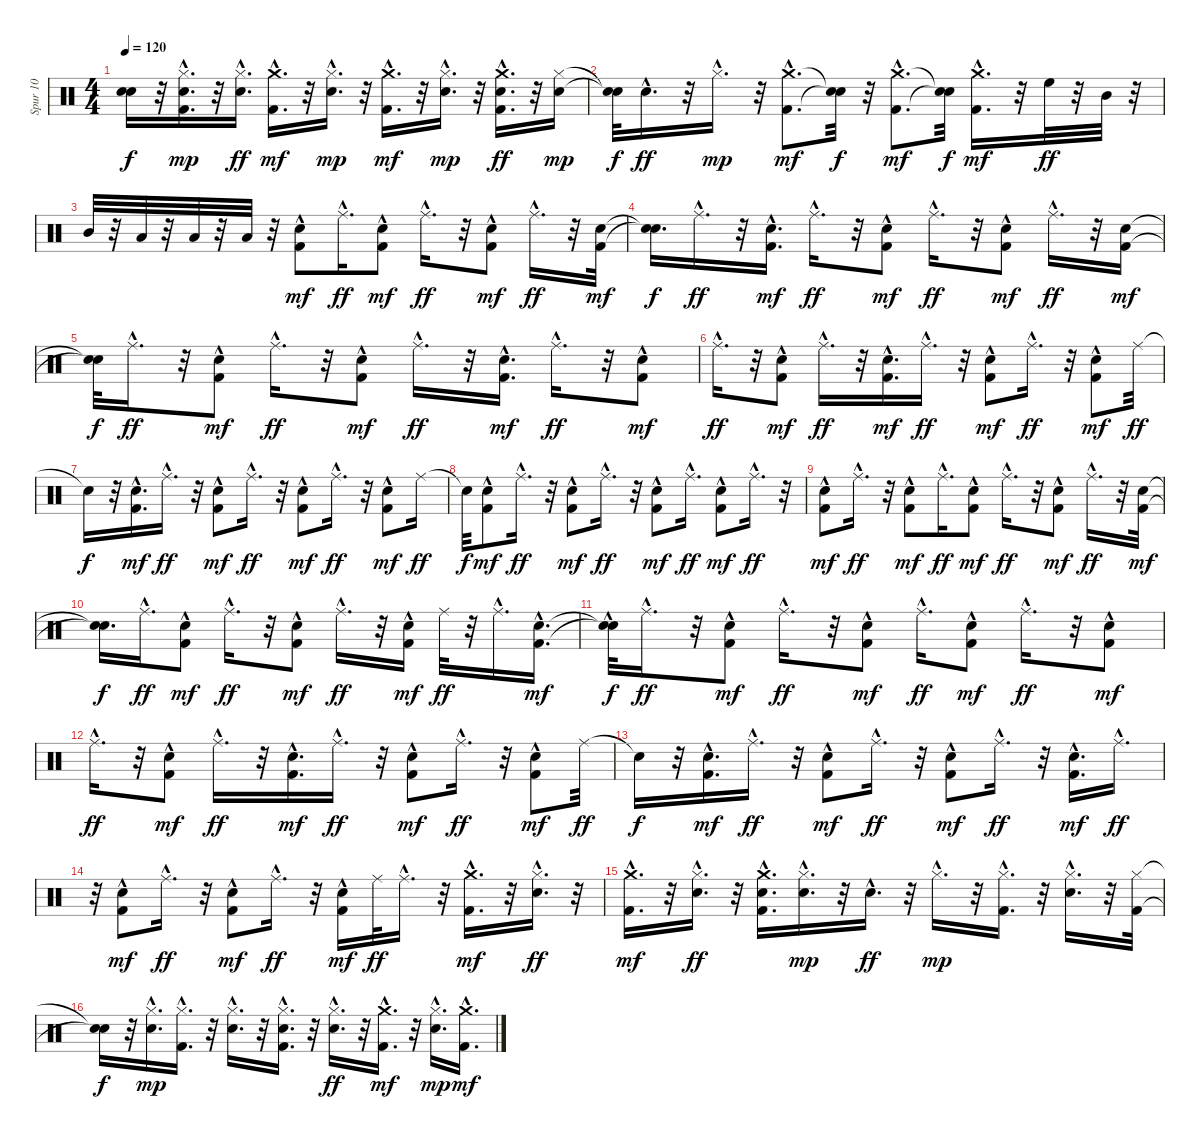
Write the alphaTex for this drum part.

\track ("Spur 10" "Spur 10") {instrument percussion}
\staff {score}
\articulation defaults
\ts (4 4)
\tempo 120
\clef neutral
\ks c
("Snare (hit)"{t} "Snare (hit)"{t}).16{dy f} r.32 ("Kick (hit) 2"{hac} "Snare (hit) 2"{hac} "Hi-Hat (closed)"{hac}).16{d dy mp} r.32 ("Hi-Hat (closed)"{hac} "Snare (hit) 2"{hac}).16{d dy ff} ("Kick (hit) 2"{hac} "Crash medium (hit)"{hac}).16{d dy mf} r.32 ("Snare (hit) 2"{hac} "Hi-Hat (closed)"{hac}).16{d dy mp} r.32 ("Crash medium (hit)"{hac} "Kick (hit) 2"{hac}).16{d dy mf} r.32 ("Snare (hit) 2"{hac} "Hi-Hat (closed)"{hac}).16{d dy mp} r.32 ("Crash medium (hit)"{hac} "Snare (hit) 2"{hac} "Kick (hit) 2"{hac}).16{d dy ff} r.32 ("Snare (hit) 2" "Hi-Hat (closed)").16{dy mp} |
("Snare (hit)"{t} "Snare (hit)"{t}).32{dy f} "Snare (hit) 2"{hac}.16{d dy ff} r.32 "Hi-Hat (closed)"{hac}.16{d dy mp} r.32 ("Crash medium (hit)"{hac} "Kick (hit) 2"{hac}).8{d dy mf} ("Snare (hit)"{t} "Snare (hit)"{t}).32{dy f} r.32 ("Crash medium (hit)"{hac} "Kick (hit) 2"{hac}).8{d dy mf} ("Snare (hit)"{t} "Snare (hit)"{t}).32{dy f} ("Crash medium (hit)"{hac} "Kick (hit) 2"{hac}).16{d dy mf} r.32 "High Floor Tom (hit)".32{dy ff} r.32 "Mid Tom (hit)".32 r.32 |
"Mid Tom (hit)".32 r.32 "Low Tom (hit)".32 r.32 "Low Tom (hit)".32 r.32 "Low Floor Tom (hit)".32 r.32 ("Kick (hit) 2"{hac} "Hand Clap (hit)"{hac}).8{dy mf} "Ride (middle)"{hac}.16{d dy ff} ("Hand Clap (hit)"{hac} "Kick (hit) 2"{hac}).8{dy mf} "Ride (middle)"{hac}.16{d dy ff} r.32 ("Hand Clap (hit)"{hac} "Kick (hit) 2"{hac}).8{dy mf} "Ride (middle)"{hac}.16{d dy ff} r.32 ("Hand Clap (hit)" "Kick (hit) 2").32{dy mf} |
("Snare (hit)"{t} "Snare (hit)"{t}).16{d dy f} "Ride (middle)"{hac}.16{d dy ff} r.32 ("Kick (hit) 2"{hac} "Hand Clap (hit)"{hac}).16{d dy mf} "Ride (middle)"{hac}.16{d dy ff} r.32 ("Hand Clap (hit)"{hac} "Kick (hit) 2"{hac}).8{dy mf} "Ride (middle)"{hac}.16{d dy ff} r.32 ("Hand Clap (hit)"{hac} "Kick (hit) 2"{hac}).8{dy mf} "Ride (middle)"{hac}.16{d dy ff} r.32 ("Hand Clap (hit)" "Kick (hit) 2").16{dy mf} |
("Snare (hit)"{t} "Snare (hit)"{t}).32{dy f} "Ride (middle)"{hac}.16{d dy ff} r.32 ("Kick (hit) 2"{hac} "Hand Clap (hit)"{hac}).8{dy mf} "Ride (middle)"{hac}.16{d dy ff} r.32 ("Hand Clap (hit)"{hac} "Kick (hit) 2"{hac}).8{dy mf} "Ride (middle)"{hac}.16{d dy ff} r.32 ("Hand Clap (hit)"{hac} "Kick (hit) 2"{hac}).16{d dy mf} "Ride (middle)"{hac}.16{d dy ff} r.32 ("Hand Clap (hit)"{hac} "Kick (hit) 2"{hac}).8{dy mf} |
"Ride (middle)"{hac}.16{d dy ff} r.32 ("Kick (hit) 2"{hac} "Hand Clap (hit)"{hac}).8{dy mf} "Ride (middle)"{hac}.16{d dy ff} r.32 ("Hand Clap (hit)"{hac} "Kick (hit) 2"{hac}).16{d dy mf} "Ride (middle)"{hac}.16{d dy ff} r.32 ("Hand Clap (hit)"{hac} "Kick (hit) 2"{hac}).8{dy mf} "Ride (middle)"{hac}.16{d dy ff} r.32 ("Hand Clap (hit)"{hac} "Kick (hit) 2"{hac}).8{dy mf} "Ride (middle)".32{dy ff} |
"Snare (hit)"{t}.16{dy f} r.32 ("Kick (hit) 2"{hac} "Hand Clap (hit)"{hac}).16{d dy mf} "Ride (middle)"{hac}.16{d dy ff} r.32 ("Hand Clap (hit)"{hac} "Kick (hit) 2"{hac}).8{dy mf} "Ride (middle)"{hac}.16{d dy ff} r.32 ("Hand Clap (hit)"{hac} "Kick (hit) 2"{hac}).8{dy mf} "Ride (middle)"{hac}.16{d dy ff} r.32 ("Hand Clap (hit)"{hac} "Kick (hit) 2"{hac}).8{dy mf} "Ride (middle)".16{dy ff} |
"Snare (hit)"{t}.32{dy f} ("Kick (hit) 2"{hac} "Hand Clap (hit)"{hac}).8{dy mf} "Ride (middle)"{hac}.16{d dy ff} r.32 ("Hand Clap (hit)"{hac} "Kick (hit) 2"{hac}).8{dy mf} "Ride (middle)"{hac}.16{d dy ff} r.32 ("Hand Clap (hit)"{hac} "Kick (hit) 2"{hac}).8{dy mf} "Ride (middle)"{hac}.16{d dy ff} ("Hand Clap (hit)"{hac} "Kick (hit) 2"{hac}).8{dy mf} "Ride (middle)"{hac}.16{d dy ff} r.32 |
("Kick (hit) 2"{hac} "Hand Clap (hit)"{hac}).8{dy mf} "Ride (middle)"{hac}.16{d dy ff} r.32 ("Hand Clap (hit)"{hac} "Kick (hit) 2"{hac}).8{dy mf} "Ride (middle)"{hac}.16{d dy ff} ("Hand Clap (hit)"{hac} "Kick (hit) 2"{hac}).8{dy mf} "Ride (middle)"{hac}.16{d dy ff} r.32 ("Hand Clap (hit)"{hac} "Kick (hit) 2"{hac}).8{dy mf} "Ride (middle)"{hac}.16{d dy ff} r.32 ("Kick (hit) 2" "Hand Clap (hit)").32{dy mf} |
("Snare (hit)"{t} "Snare (hit)"{t}).16{d dy f} "Ride (middle)"{hac}.16{d dy ff} ("Hand Clap (hit)"{hac} "Kick (hit) 2"{hac}).8{dy mf} "Ride (middle)"{hac}.16{d dy ff} r.32 ("Hand Clap (hit)"{hac} "Kick (hit) 2"{hac}).8{dy mf} "Ride (middle)"{hac}.16{d dy ff} r.32 ("Hand Clap (hit)"{hac} "Kick (hit) 2"{hac}).16{dy mf} "Ride (middle)".32{dy ff} r.32 "Ride (middle)"{hac}.16{d} ("Kick (hit) 2"{hac} "Hand Clap (hit)"{hac}).16{d dy mf} |
("Snare (hit)"{hac t} "Snare (hit)"{hac t}).32{dy f} "Ride (middle)"{hac}.16{d dy ff} r.32 ("Hand Clap (hit)"{hac} "Kick (hit) 2"{hac}).8{dy mf} "Ride (middle)"{hac}.16{d dy ff} r.32 ("Hand Clap (hit)"{hac} "Kick (hit) 2"{hac}).8{dy mf} "Ride (middle)"{hac}.16{d dy ff} ("Hand Clap (hit)"{hac} "Kick (hit) 2"{hac}).8{dy mf} "Ride (middle)"{hac}.16{d dy ff} r.32 ("Kick (hit) 2"{hac} "Hand Clap (hit)"{hac}).8{dy mf} |
"Ride (middle)"{hac}.16{d dy ff} r.32 ("Hand Clap (hit)"{hac} "Kick (hit) 2"{hac}).8{dy mf} "Ride (middle)"{hac}.16{d dy ff} r.32 ("Hand Clap (hit)"{hac} "Kick (hit) 2"{hac}).16{d dy mf} "Ride (middle)"{hac}.16{d dy ff} r.32 ("Hand Clap (hit)"{hac} "Kick (hit) 2"{hac}).8{dy mf} "Ride (middle)"{hac}.16{d dy ff} r.32 ("Kick (hit) 2"{hac} "Hand Clap (hit)"{hac}).8{dy mf} "Ride (middle)".32{dy ff} |
"Snare (hit)"{t}.16{dy f} r.32 ("Hand Clap (hit)"{hac} "Kick (hit) 2"{hac}).16{d dy mf} "Ride (middle)"{hac}.16{d dy ff} r.32 ("Hand Clap (hit)"{hac} "Kick (hit) 2"{hac}).8{dy mf} "Ride (middle)"{hac}.16{d dy ff} r.32 ("Hand Clap (hit)"{hac} "Kick (hit) 2"{hac}).8{dy mf} "Ride (middle)"{hac}.16{d dy ff} r.32 ("Kick (hit) 2"{hac} "Hand Clap (hit)"{hac}).16{d dy mf} "Ride (middle)"{hac}.16{d dy ff} |
r.32 ("Hand Clap (hit)"{hac} "Kick (hit) 2"{hac}).8{dy mf} "Ride (middle)"{hac}.16{d dy ff} r.32 ("Hand Clap (hit)"{hac} "Kick (hit) 2"{hac}).8{dy mf} "Ride (middle)"{hac}.16{d dy ff} r.32 ("Hand Clap (hit)"{hac} "Kick (hit) 2"{hac}).16{dy mf} "Ride (middle)".32{dy ff} "Ride (middle)"{hac}.16{d} r.32 ("Crash medium (hit)"{hac} "Kick (hit) 2"{hac}).16{d dy mf} r.32 ("Hi-Hat (closed)"{hac} "Snare (hit) 2"{hac}).16{d dy ff} r.32 |
("Crash medium (hit)"{hac} "Kick (hit) 2"{hac}).16{d dy mf} r.32 ("Hi-Hat (closed)"{hac} "Snare (hit) 2"{hac}).16{d dy ff} r.32 ("Crash medium (hit)"{hac} "Kick (hit) 2"{hac} "Snare (hit) 2").16{d} ("Snare (hit) 2"{hac} "Hi-Hat (closed)"{hac}).16{d dy mp} r.32 "Snare (hit) 2"{hac}.16{d dy ff} r.32 "Hi-Hat (closed)"{hac}.16{d dy mp} r.32 ("Kick (hit) 2"{hac} "Hi-Hat (closed)"{hac}).16{d} r.32 ("Snare (hit) 2"{hac} "Hi-Hat (closed)"{hac}).16{d} r.32 ("Hi-Hat (closed)" "Kick (hit) 2").32 |
("Snare (hit)"{t} "Snare (hit)"{t}).16{dy f} r.32 ("Snare (hit) 2"{hac} "Hi-Hat (closed)"{hac}).16{d dy mp} ("Kick (hit) 2"{hac} "Hi-Hat (closed)"{hac}).16{d} r.32 ("Snare (hit) 2"{hac} "Hi-Hat (closed)"{hac}).16{d} r.32 ("Kick (hit) 2"{hac} "Snare (hit) 2"{hac} "Hi-Hat (closed)"{hac}).16{d} r.32 ("Hi-Hat (closed)"{hac} "Snare (hit) 2"{hac}).16{d dy ff} r.32 ("Kick (hit) 2"{hac} "Crash medium (hit)"{hac}).16{d dy mf} r.32 ("Snare (hit) 2"{hac} "Hi-Hat (closed)"{hac}).16{d dy mp} ("Crash medium (hit)"{hac} "Kick (hit) 2"{hac}).16{d dy mf}
